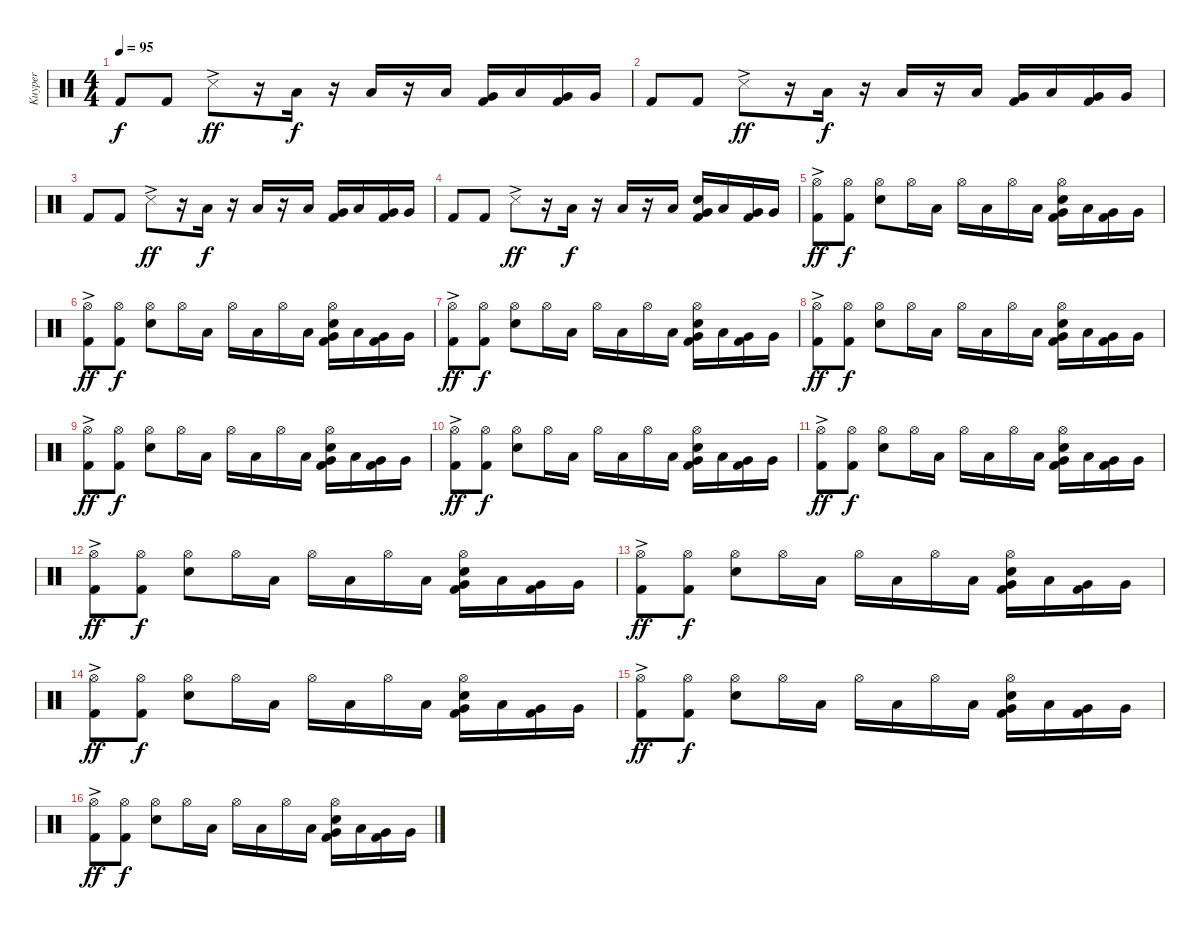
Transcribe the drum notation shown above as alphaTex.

\track ("Kuyper" "Kuyper") {instrument percussion}
\staff {score}
\articulation defaults
\ts (4 4)
\tempo 95
\clef neutral
\ks c "Kick (hit) 2".8{dy f} "Kick (hit) 2".8 "Snare (side stick) 3"{ac}.8{dy ff}
r.16 "Low Floor Tom (hit)".16{dy f} r.16 "Low Floor Tom (hit)".16 r.16 "Low Floor Tom (hit)".16 ("Very Low Tom (hit)" "Kick (hit) 2").16 "Low Floor Tom (hit)".16 ("Very Low Tom (hit)" "Kick (hit) 2").16 "Very Low Tom (hit)".16 |
"Kick (hit) 2".8 "Kick (hit) 2".8 "Snare (side stick) 3"{ac}.8{dy ff} r.16 "Low Floor Tom (hit)".16{dy f} r.16 "Low Floor Tom (hit)".16 r.16 "Low Floor Tom (hit)".16 ("Very Low Tom (hit)" "Kick (hit) 2").16 "Low Floor Tom (hit)".16 ("Very Low Tom (hit)" "Kick (hit) 2").16 "Very Low Tom (hit)".16 |
"Kick (hit) 2".8 "Kick (hit) 2".8 "Snare (side stick) 3"{ac}.8{dy ff} r.16 "Low Floor Tom (hit)".16{dy f} r.16 "Low Floor Tom (hit)".16 r.16 "Low Floor Tom (hit)".16 ("Very Low Tom (hit)" "Kick (hit) 2").16 "Low Floor Tom (hit)".16 ("Very Low Tom (hit)" "Kick (hit) 2").16 "Very Low Tom (hit)".16 |
"Kick (hit) 2".8 "Kick (hit) 2".8 "Snare (side stick) 3"{ac}.8{dy ff} r.16 "Low Floor Tom (hit)".16{dy f} r.16 "Low Floor Tom (hit)".16 r.16 "Low Floor Tom (hit)".16 ("Very Low Tom (hit)" "Snare (hit) 2" "Kick (hit) 2").16 "Low Floor Tom (hit)".16 ("Very Low Tom (hit)" "Kick (hit) 2").16 "Very Low Tom (hit)".16 |
("Hi-Hat (open)"{ac} "Kick (hit) 2").8{dy ff} ("Hi-Hat (open)" "Kick (hit) 2").8{dy f} ("Hi-Hat (open)" "Snare (hit) 2").8 "Hi-Hat (open)".16 "Low Floor Tom (hit)".16 "Hi-Hat (open)".16 "Low Floor Tom (hit)".16 "Hi-Hat (open)".16 "Low Floor Tom (hit)".16 ("Hi-Hat (open)" "Very Low Tom (hit)" "Snare (hit) 2" "Kick (hit) 2").16 "Low Floor Tom (hit)".16 ("Very Low Tom (hit)" "Kick (hit) 2").16 "Very Low Tom (hit)".16 |
("Hi-Hat (open)"{ac} "Kick (hit) 2").8{dy ff} ("Hi-Hat (open)" "Kick (hit) 2").8{dy f} ("Hi-Hat (open)" "Snare (hit) 2").8 "Hi-Hat (open)".16 "Low Floor Tom (hit)".16 "Hi-Hat (open)".16 "Low Floor Tom (hit)".16 "Hi-Hat (open)".16 "Low Floor Tom (hit)".16 ("Hi-Hat (open)" "Very Low Tom (hit)" "Snare (hit) 2" "Kick (hit) 2").16 "Low Floor Tom (hit)".16 ("Very Low Tom (hit)" "Kick (hit) 2").16 "Very Low Tom (hit)".16 |
("Hi-Hat (open)"{ac} "Kick (hit) 2").8{dy ff} ("Hi-Hat (open)" "Kick (hit) 2").8{dy f} ("Hi-Hat (open)" "Snare (hit) 2").8 "Hi-Hat (open)".16 "Low Floor Tom (hit)".16 "Hi-Hat (open)".16 "Low Floor Tom (hit)".16 "Hi-Hat (open)".16 "Low Floor Tom (hit)".16 ("Hi-Hat (open)" "Very Low Tom (hit)" "Snare (hit) 2" "Kick (hit) 2").16 "Low Floor Tom (hit)".16 ("Very Low Tom (hit)" "Kick (hit) 2").16 "Very Low Tom (hit)".16 |
("Hi-Hat (open)"{ac} "Kick (hit) 2").8{dy ff} ("Hi-Hat (open)" "Kick (hit) 2").8{dy f} ("Hi-Hat (open)" "Snare (hit) 2").8 "Hi-Hat (open)".16 "Low Floor Tom (hit)".16 "Hi-Hat (open)".16 "Low Floor Tom (hit)".16 "Hi-Hat (open)".16 "Low Floor Tom (hit)".16 ("Hi-Hat (open)" "Very Low Tom (hit)" "Snare (hit) 2" "Kick (hit) 2").16 "Low Floor Tom (hit)".16 ("Very Low Tom (hit)" "Kick (hit) 2").16 "Very Low Tom (hit)".16 |
("Hi-Hat (open)"{ac} "Kick (hit) 2").8{dy ff} ("Hi-Hat (open)" "Kick (hit) 2").8{dy f} ("Hi-Hat (open)" "Snare (hit) 2").8 "Hi-Hat (open)".16 "Low Floor Tom (hit)".16 "Hi-Hat (open)".16 "Low Floor Tom (hit)".16 "Hi-Hat (open)".16 "Low Floor Tom (hit)".16 ("Hi-Hat (open)" "Very Low Tom (hit)" "Snare (hit) 2" "Kick (hit) 2").16 "Low Floor Tom (hit)".16 ("Very Low Tom (hit)" "Kick (hit) 2").16 "Very Low Tom (hit)".16 |
("Hi-Hat (open)"{ac} "Kick (hit) 2").8{dy ff} ("Hi-Hat (open)" "Kick (hit) 2").8{dy f} ("Hi-Hat (open)" "Snare (hit) 2").8 "Hi-Hat (open)".16 "Low Floor Tom (hit)".16 "Hi-Hat (open)".16 "Low Floor Tom (hit)".16 "Hi-Hat (open)".16 "Low Floor Tom (hit)".16 ("Hi-Hat (open)" "Very Low Tom (hit)" "Snare (hit) 2" "Kick (hit) 2").16 "Low Floor Tom (hit)".16 ("Very Low Tom (hit)" "Kick (hit) 2").16 "Very Low Tom (hit)".16 |
("Hi-Hat (open)"{ac} "Kick (hit) 2").8{dy ff} ("Hi-Hat (open)" "Kick (hit) 2").8{dy f} ("Hi-Hat (open)" "Snare (hit) 2").8 "Hi-Hat (open)".16 "Low Floor Tom (hit)".16 "Hi-Hat (open)".16 "Low Floor Tom (hit)".16 "Hi-Hat (open)".16 "Low Floor Tom (hit)".16 ("Hi-Hat (open)" "Very Low Tom (hit)" "Snare (hit) 2" "Kick (hit) 2").16 "Low Floor Tom (hit)".16 ("Very Low Tom (hit)" "Kick (hit) 2").16 "Very Low Tom (hit)".16 |
("Hi-Hat (open)"{ac} "Kick (hit) 2").8{dy ff} ("Hi-Hat (open)" "Kick (hit) 2").8{dy f} ("Hi-Hat (open)" "Snare (hit) 2").8 "Hi-Hat (open)".16 "Low Floor Tom (hit)".16 "Hi-Hat (open)".16 "Low Floor Tom (hit)".16 "Hi-Hat (open)".16 "Low Floor Tom (hit)".16 ("Hi-Hat (open)" "Very Low Tom (hit)" "Snare (hit) 2" "Kick (hit) 2").16 "Low Floor Tom (hit)".16 ("Very Low Tom (hit)" "Kick (hit) 2").16 "Very Low Tom (hit)".16 |
("Hi-Hat (open)"{ac} "Kick (hit) 2").8{dy ff} ("Hi-Hat (open)" "Kick (hit) 2").8{dy f} ("Hi-Hat (open)" "Snare (hit) 2").8 "Hi-Hat (open)".16 "Low Floor Tom (hit)".16 "Hi-Hat (open)".16 "Low Floor Tom (hit)".16 "Hi-Hat (open)".16 "Low Floor Tom (hit)".16 ("Hi-Hat (open)" "Very Low Tom (hit)" "Snare (hit) 2" "Kick (hit) 2").16 "Low Floor Tom (hit)".16 ("Very Low Tom (hit)" "Kick (hit) 2").16 "Very Low Tom (hit)".16 |
("Hi-Hat (open)"{ac} "Kick (hit) 2").8{dy ff} ("Hi-Hat (open)" "Kick (hit) 2").8{dy f} ("Hi-Hat (open)" "Snare (hit) 2").8 "Hi-Hat (open)".16 "Low Floor Tom (hit)".16 "Hi-Hat (open)".16 "Low Floor Tom (hit)".16 "Hi-Hat (open)".16 "Low Floor Tom (hit)".16 ("Hi-Hat (open)" "Very Low Tom (hit)" "Snare (hit) 2" "Kick (hit) 2").16 "Low Floor Tom (hit)".16 ("Very Low Tom (hit)" "Kick (hit) 2").16 "Very Low Tom (hit)".16 |
("Hi-Hat (open)"{ac} "Kick (hit) 2").8{dy ff} ("Hi-Hat (open)" "Kick (hit) 2").8{dy f} ("Hi-Hat (open)" "Snare (hit) 2").8 "Hi-Hat (open)".16 "Low Floor Tom (hit)".16 "Hi-Hat (open)".16 "Low Floor Tom (hit)".16 "Hi-Hat (open)".16 "Low Floor Tom (hit)".16 ("Hi-Hat (open)" "Very Low Tom (hit)" "Snare (hit) 2" "Kick (hit) 2").16 "Low Floor Tom (hit)".16 ("Very Low Tom (hit)" "Kick (hit) 2").16 "Very Low Tom (hit)".16 |
("Hi-Hat (open)"{ac} "Kick (hit) 2").8{dy ff} ("Hi-Hat (open)" "Kick (hit) 2").8{dy f} ("Hi-Hat (open)" "Snare (hit) 2").8 "Hi-Hat (open)".16 "Low Floor Tom (hit)".16 "Hi-Hat (open)".16 "Low Floor Tom (hit)".16 "Hi-Hat (open)".16 "Low Floor Tom (hit)".16 ("Hi-Hat (open)" "Very Low Tom (hit)" "Snare (hit) 2" "Kick (hit) 2").16 "Low Floor Tom (hit)".16 ("Very Low Tom (hit)" "Kick (hit) 2").16 "Very Low Tom (hit)".16
